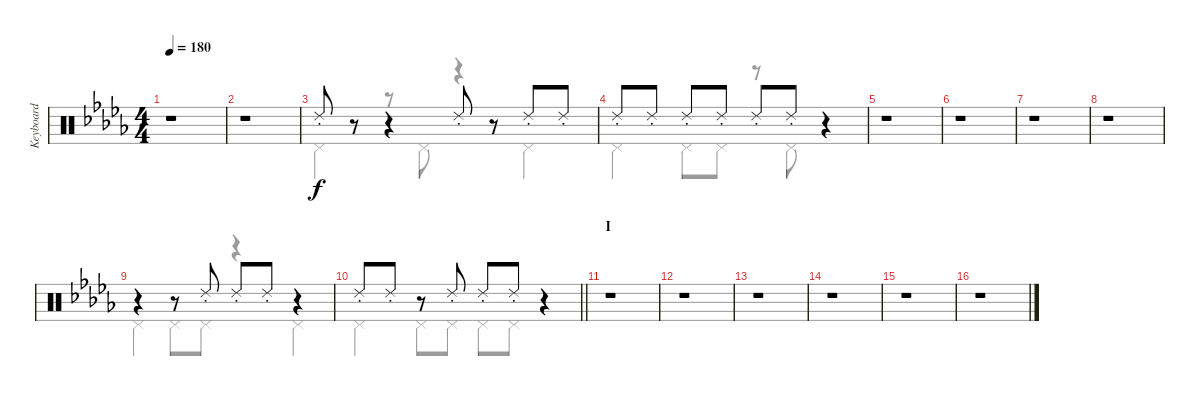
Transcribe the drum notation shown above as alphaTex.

\track ("Keyboard" "Keyboard") {instrument percussion}
\staff {score}
\articulation defaults
\voice
\ts (4 4)
\tempo 180
\clef neutral
\ks db
r.1{dy f} |
r.1 |
"Ride (choke) 2".8 r.8 r.4 "Ride (choke) 2".8 r.8 "Ride (choke) 2".8 "Ride (choke) 2".8 |
"Ride (choke) 2".8 "Ride (choke) 2".8 "Ride (choke) 2".8 "Ride (choke) 2".8 "Ride (choke) 2".8 "Ride (choke) 2".8 r.4 |
r.1 |
r.1 |
r.1 |
r.1 |
r.4 r.8 "Ride (choke) 2".8 "Ride (choke) 2".8 "Ride (choke) 2".8 r.4 |
\barLineRight lightlight "Ride (choke) 2".8 "Ride (choke) 2".8
r.8 "Ride (choke) 2".8 "Ride (choke) 2".8 "Ride (choke) 2".8 r.4 |
\section ("" "I")
r.1 |
r.1 |
r.1 |
r.1 |
r.1 |
r.1
\voice
\clef neutral
\ottava regular
\simile none
\ks db
|
|
"Pedal Hi-Hat (hit)".4 r.8 "Pedal Hi-Hat (hit)".8 r.4 "Pedal Hi-Hat (hit)".4 |
"Pedal Hi-Hat (hit)".4 "Pedal Hi-Hat (hit)".8 "Pedal Hi-Hat (hit)".8 r.8 "Pedal Hi-Hat (hit)".8 r.4 |
|
|
|
|
"Pedal Hi-Hat (hit)".4 "Pedal Hi-Hat (hit)".8 "Pedal Hi-Hat (hit)".8 r.4 "Pedal Hi-Hat (hit)".4 |
\barLineRight lightlight "Pedal Hi-Hat (hit)".4 "Pedal Hi-Hat (hit)".8 "Pedal Hi-Hat (hit)".8 "Pedal Hi-Hat (hit)".8 "Pedal Hi-Hat (hit)".8
r.4 |
|
|
|
|
|
